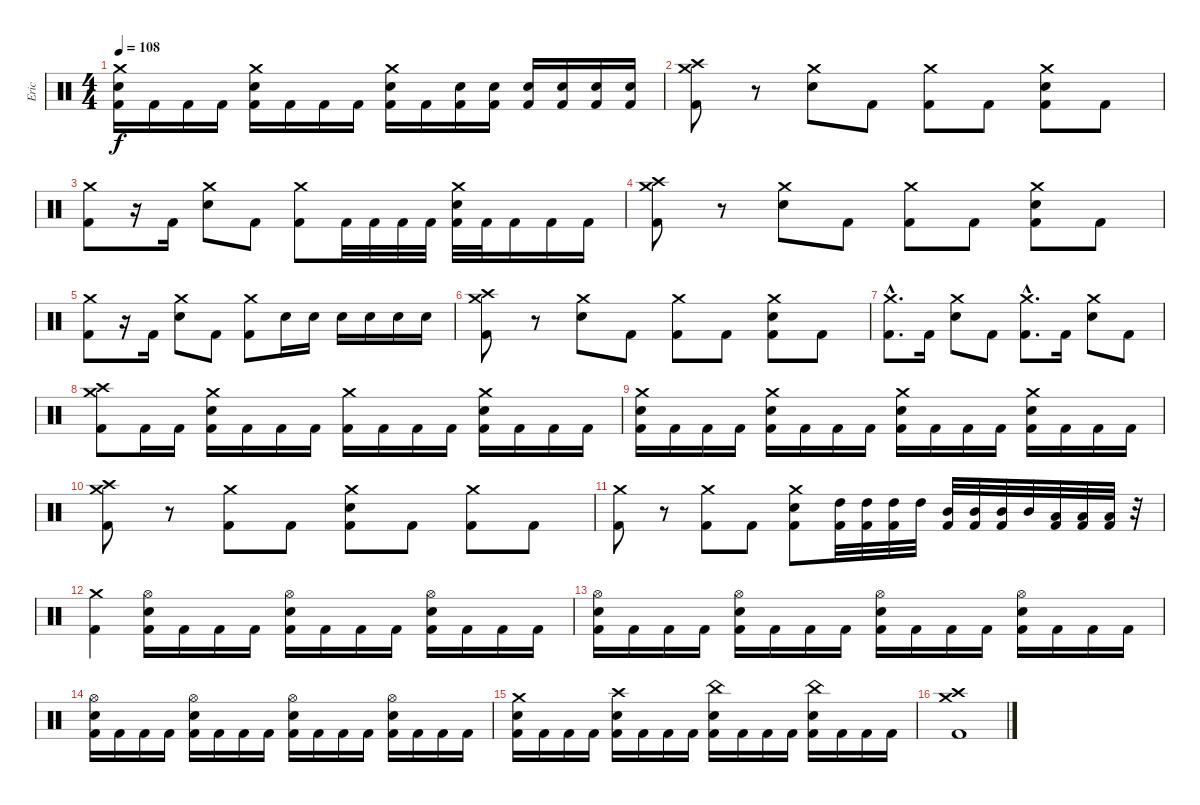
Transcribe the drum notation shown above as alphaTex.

\track ("Eric" "Eric") {instrument percussion}
\staff {score}
\articulation defaults
\ts (4 4)
\tempo 108
\clef neutral
\ks c
("Crash medium (hit)" "Electric Snare (hit)" "Kick (hit) 2").16{dy f} "Kick (hit) 2".16 "Kick (hit) 2".16 "Kick (hit) 2".16 ("Crash medium (hit)" "Electric Snare (hit)" "Kick (hit) 2").16 "Kick (hit) 2".16 "Kick (hit) 2".16 "Kick (hit) 2".16 ("Crash medium (hit)" "Electric Snare (hit)" "Kick (hit) 2").16 "Kick (hit) 2".16 ("Electric Snare (hit)" "Kick (hit) 2").16 ("Electric Snare (hit)" "Kick (hit) 2").16 ("Electric Snare (hit)" "Kick (hit) 2").16 ("Electric Snare (hit)" "Kick (hit) 2").16 ("Electric Snare (hit)" "Kick (hit) 2").16 ("Electric Snare (hit)" "Kick (hit) 2").16 |
("Crash medium (hit)" "Crash high (hit)" "Kick (hit) 2").8 r.8 ("Crash medium (hit)" "Electric Snare (hit)").8 "Kick (hit) 2".8 ("Crash medium (hit)" "Kick (hit) 2").8 "Kick (hit) 2".8 ("Crash medium (hit)" "Electric Snare (hit)" "Kick (hit) 2").8 "Kick (hit) 2".8 |
("Crash medium (hit)" "Kick (hit) 2").8 r.16 "Kick (hit) 2".16 ("Crash medium (hit)" "Electric Snare (hit)").8 "Kick (hit) 2".8 ("Crash medium (hit)" "Kick (hit) 2").8 "Kick (hit) 2".32 "Kick (hit) 2".32 "Kick (hit) 2".32 "Kick (hit) 2".32 ("Crash medium (hit)" "Electric Snare (hit)" "Kick (hit) 2").32 "Kick (hit) 2".32 "Kick (hit) 2".16 "Kick (hit) 2".16 "Kick (hit) 2".16 |
("Crash medium (hit)" "Crash high (hit)" "Kick (hit) 2").8 r.8 ("Crash medium (hit)" "Electric Snare (hit)").8 "Kick (hit) 2".8 ("Crash medium (hit)" "Kick (hit) 2").8 "Kick (hit) 2".8 ("Crash medium (hit)" "Electric Snare (hit)" "Kick (hit) 2").8 "Kick (hit) 2".8 |
("Crash medium (hit)" "Kick (hit) 2").8 r.16 "Kick (hit) 2".16 ("Crash medium (hit)" "Electric Snare (hit)").8 "Kick (hit) 2".8 ("Crash medium (hit)" "Kick (hit) 2").8 "Electric Snare (hit)".16 "Electric Snare (hit)".16 "Electric Snare (hit)".16 "Electric Snare (hit)".16 "Electric Snare (hit)".16 "Electric Snare (hit)".16 |
("Crash medium (hit)" "Crash high (hit)" "Kick (hit) 2").8 r.8 ("Crash medium (hit)" "Electric Snare (hit)").8 "Kick (hit) 2".8 ("Crash medium (hit)" "Kick (hit) 2").8 "Kick (hit) 2".8 ("Crash medium (hit)" "Electric Snare (hit)" "Kick (hit) 2").8 "Kick (hit) 2".8 |
("Crash medium (hit)"{hac} "Kick (hit) 2"{hac}).8{d} "Kick (hit) 2".16 ("Crash medium (hit)" "Electric Snare (hit)").8 "Kick (hit) 2".8 ("Crash medium (hit)"{hac} "Kick (hit) 2"{hac}).8{d} "Kick (hit) 2".16 ("Crash medium (hit)" "Electric Snare (hit)").8 "Kick (hit) 2".8 |
("Crash medium (hit)" "Crash high (hit)" "Kick (hit) 2").8 "Kick (hit) 2".16 "Kick (hit) 2".16 ("Crash medium (hit)" "Electric Snare (hit)" "Kick (hit) 2").16 "Kick (hit) 2".16 "Kick (hit) 2".16 "Kick (hit) 2".16 ("Crash medium (hit)" "Kick (hit) 2").16 "Kick (hit) 2".16 "Kick (hit) 2".16 "Kick (hit) 2".16 ("Crash medium (hit)" "Electric Snare (hit)" "Kick (hit) 2").16 "Kick (hit) 2".16 "Kick (hit) 2".16 "Kick (hit) 2".16 |
("Crash medium (hit)" "Electric Snare (hit)" "Kick (hit) 2").16 "Kick (hit) 2".16 "Kick (hit) 2".16 "Kick (hit) 2".16 ("Crash medium (hit)" "Electric Snare (hit)" "Kick (hit) 2").16 "Kick (hit) 2".16 "Kick (hit) 2".16 "Kick (hit) 2".16 ("Crash medium (hit)" "Electric Snare (hit)" "Kick (hit) 2").16 "Kick (hit) 2".16 "Kick (hit) 2".16 "Kick (hit) 2".16 ("Crash medium (hit)" "Electric Snare (hit)" "Kick (hit) 2").16 "Kick (hit) 2".16 "Kick (hit) 2".16 "Kick (hit) 2".16 |
("Crash medium (hit)" "Crash high (hit)" "Kick (hit) 2").8 r.8 ("Crash medium (hit)" "Kick (hit) 2").8 "Kick (hit) 2".8 ("Crash medium (hit)" "Electric Snare (hit)" "Kick (hit) 2").8 "Kick (hit) 2".8 ("Crash medium (hit)" "Kick (hit) 2").8 "Kick (hit) 2".8 |
("Crash medium (hit)" "Kick (hit) 2").8 r.8 ("Crash medium (hit)" "Kick (hit) 2").8 "Kick (hit) 2".8 ("Crash medium (hit)" "Electric Snare (hit)" "Kick (hit) 2").8 ("High Tom (hit)" "Kick (hit) 2").32 ("High Tom (hit)" "Kick (hit) 2").32 ("High Tom (hit)" "Kick (hit) 2").32 "High Tom (hit)".32 ("Mid Tom (hit)" "Kick (hit) 2").32 ("Mid Tom (hit)" "Kick (hit) 2").32 ("Mid Tom (hit)" "Kick (hit) 2").32 "Mid Tom (hit)".32 ("Low Tom (hit)" "Kick (hit) 2").32 ("Low Tom (hit)" "Kick (hit) 2").32 ("Low Tom (hit)" "Kick (hit) 2").32 r.32 |
("Crash medium (hit)" "Kick (hit) 2").4 ("Hi-Hat (open)" "Electric Snare (hit)" "Kick (hit) 2").16 "Kick (hit) 2".16 "Kick (hit) 2".16 "Kick (hit) 2".16 ("Hi-Hat (open)" "Electric Snare (hit)" "Kick (hit) 2").16 "Kick (hit) 2".16 "Kick (hit) 2".16 "Kick (hit) 2".16 ("Hi-Hat (open)" "Electric Snare (hit)" "Kick (hit) 2").16 "Kick (hit) 2".16 "Kick (hit) 2".16 "Kick (hit) 2".16 |
("Hi-Hat (open)" "Electric Snare (hit)" "Kick (hit) 2").16 "Kick (hit) 2".16 "Kick (hit) 2".16 "Kick (hit) 2".16 ("Hi-Hat (open)" "Electric Snare (hit)" "Kick (hit) 2").16 "Kick (hit) 2".16 "Kick (hit) 2".16 "Kick (hit) 2".16 ("Hi-Hat (open)" "Electric Snare (hit)" "Kick (hit) 2").16 "Kick (hit) 2".16 "Kick (hit) 2".16 "Kick (hit) 2".16 ("Hi-Hat (open)" "Electric Snare (hit)" "Kick (hit) 2").16 "Kick (hit) 2".16 "Kick (hit) 2".16 "Kick (hit) 2".16 |
("Hi-Hat (open)" "Electric Snare (hit)" "Kick (hit) 2").16 "Kick (hit) 2".16 "Kick (hit) 2".16 "Kick (hit) 2".16 ("Hi-Hat (open)" "Electric Snare (hit)" "Kick (hit) 2").16 "Kick (hit) 2".16 "Kick (hit) 2".16 "Kick (hit) 2".16 ("Hi-Hat (open)" "Electric Snare (hit)" "Kick (hit) 2").16 "Kick (hit) 2".16 "Kick (hit) 2".16 "Kick (hit) 2".16 ("Hi-Hat (open)" "Electric Snare (hit)" "Kick (hit) 2").16 "Kick (hit) 2".16 "Kick (hit) 2".16 "Kick (hit) 2".16 |
("Crash medium (hit)" "Electric Snare (hit)" "Kick (hit) 2").16 "Kick (hit) 2".16 "Kick (hit) 2".16 "Kick (hit) 2".16 ("Crash high (hit)" "Electric Snare (hit)" "Kick (hit) 2").16 "Kick (hit) 2".16 "Kick (hit) 2".16 "Kick (hit) 2".16 ("China (hit)" "Electric Snare (hit)" "Kick (hit) 2").16 "Kick (hit) 2".16 "Kick (hit) 2".16 "Kick (hit) 2".16 ("China (hit)" "Electric Snare (hit)" "Kick (hit) 2").16 "Kick (hit) 2".16 "Kick (hit) 2".16 "Kick (hit) 2".16 |
("Crash medium (hit)" "Crash high (hit)" "Kick (hit) 2").1
